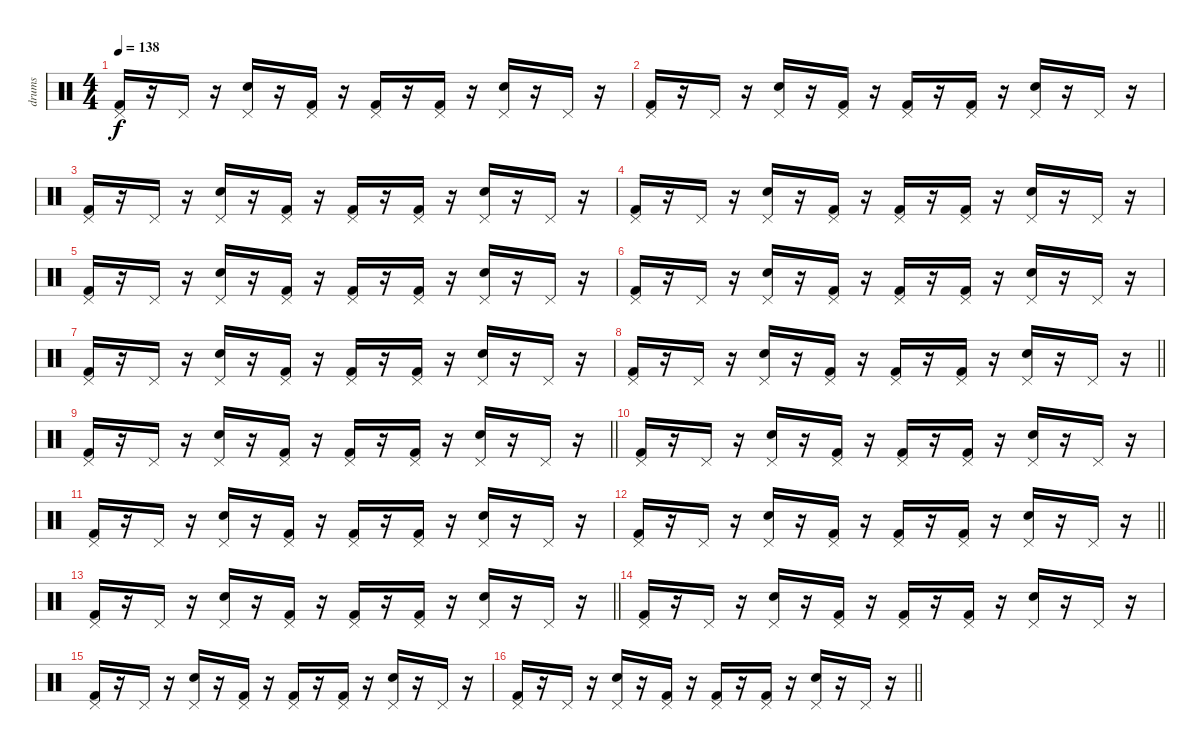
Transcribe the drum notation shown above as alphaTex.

\track ("drums" "drums") {instrument percussion}
\staff {score}
\articulation defaults
\ts (4 4)
\tempo 138
\clef neutral
\ks c
("Kick (hit) 2" "Pedal Hi-Hat (hit)").16{dy f} r.16 "Pedal Hi-Hat (hit)".16 r.16 ("Electric Snare (hit)" "Pedal Hi-Hat (hit)").16 r.16 ("Kick (hit) 2" "Pedal Hi-Hat (hit)").16 r.16 ("Kick (hit) 2" "Pedal Hi-Hat (hit)").16 r.16 ("Kick (hit) 2" "Pedal Hi-Hat (hit)").16 r.16 ("Electric Snare (hit)" "Pedal Hi-Hat (hit)").16 r.16 "Pedal Hi-Hat (hit)".16 r.16 |
("Kick (hit) 2" "Pedal Hi-Hat (hit)").16 r.16 "Pedal Hi-Hat (hit)".16 r.16 ("Electric Snare (hit)" "Pedal Hi-Hat (hit)").16 r.16 ("Kick (hit) 2" "Pedal Hi-Hat (hit)").16 r.16 ("Kick (hit) 2" "Pedal Hi-Hat (hit)").16 r.16 ("Kick (hit) 2" "Pedal Hi-Hat (hit)").16 r.16 ("Electric Snare (hit)" "Pedal Hi-Hat (hit)").16 r.16 "Pedal Hi-Hat (hit)".16 r.16 |
("Kick (hit) 2" "Pedal Hi-Hat (hit)").16 r.16 "Pedal Hi-Hat (hit)".16 r.16 ("Electric Snare (hit)" "Pedal Hi-Hat (hit)").16 r.16 ("Kick (hit) 2" "Pedal Hi-Hat (hit)").16 r.16 ("Kick (hit) 2" "Pedal Hi-Hat (hit)").16 r.16 ("Kick (hit) 2" "Pedal Hi-Hat (hit)").16 r.16 ("Electric Snare (hit)" "Pedal Hi-Hat (hit)").16 r.16 "Pedal Hi-Hat (hit)".16 r.16 |
("Kick (hit) 2" "Pedal Hi-Hat (hit)").16 r.16 "Pedal Hi-Hat (hit)".16 r.16 ("Electric Snare (hit)" "Pedal Hi-Hat (hit)").16 r.16 ("Kick (hit) 2" "Pedal Hi-Hat (hit)").16 r.16 ("Kick (hit) 2" "Pedal Hi-Hat (hit)").16 r.16 ("Kick (hit) 2" "Pedal Hi-Hat (hit)").16 r.16 ("Electric Snare (hit)" "Pedal Hi-Hat (hit)").16 r.16 "Pedal Hi-Hat (hit)".16 r.16 |
("Kick (hit) 2" "Pedal Hi-Hat (hit)").16 r.16 "Pedal Hi-Hat (hit)".16 r.16 ("Electric Snare (hit)" "Pedal Hi-Hat (hit)").16 r.16 ("Kick (hit) 2" "Pedal Hi-Hat (hit)").16 r.16 ("Kick (hit) 2" "Pedal Hi-Hat (hit)").16 r.16 ("Kick (hit) 2" "Pedal Hi-Hat (hit)").16 r.16 ("Electric Snare (hit)" "Pedal Hi-Hat (hit)").16 r.16 "Pedal Hi-Hat (hit)".16 r.16 |
("Kick (hit) 2" "Pedal Hi-Hat (hit)").16 r.16 "Pedal Hi-Hat (hit)".16 r.16 ("Electric Snare (hit)" "Pedal Hi-Hat (hit)").16 r.16 ("Kick (hit) 2" "Pedal Hi-Hat (hit)").16 r.16 ("Kick (hit) 2" "Pedal Hi-Hat (hit)").16 r.16 ("Kick (hit) 2" "Pedal Hi-Hat (hit)").16 r.16 ("Electric Snare (hit)" "Pedal Hi-Hat (hit)").16 r.16 "Pedal Hi-Hat (hit)".16 r.16 |
("Kick (hit) 2" "Pedal Hi-Hat (hit)").16 r.16 "Pedal Hi-Hat (hit)".16 r.16 ("Electric Snare (hit)" "Pedal Hi-Hat (hit)").16 r.16 ("Kick (hit) 2" "Pedal Hi-Hat (hit)").16 r.16 ("Kick (hit) 2" "Pedal Hi-Hat (hit)").16 r.16 ("Kick (hit) 2" "Pedal Hi-Hat (hit)").16 r.16 ("Electric Snare (hit)" "Pedal Hi-Hat (hit)").16 r.16 "Pedal Hi-Hat (hit)".16 r.16 |
\barLineRight lightlight
("Kick (hit) 2" "Pedal Hi-Hat (hit)").16 r.16 "Pedal Hi-Hat (hit)".16 r.16 ("Electric Snare (hit)" "Pedal Hi-Hat (hit)").16 r.16 ("Kick (hit) 2" "Pedal Hi-Hat (hit)").16 r.16 ("Kick (hit) 2" "Pedal Hi-Hat (hit)").16 r.16 ("Kick (hit) 2" "Pedal Hi-Hat (hit)").16 r.16 ("Electric Snare (hit)" "Pedal Hi-Hat (hit)").16 r.16 "Pedal Hi-Hat (hit)".16 r.16 |
\barLineRight lightlight
("Kick (hit) 2" "Pedal Hi-Hat (hit)").16 r.16 "Pedal Hi-Hat (hit)".16 r.16 ("Electric Snare (hit)" "Pedal Hi-Hat (hit)").16 r.16 ("Kick (hit) 2" "Pedal Hi-Hat (hit)").16 r.16 ("Kick (hit) 2" "Pedal Hi-Hat (hit)").16 r.16 ("Kick (hit) 2" "Pedal Hi-Hat (hit)").16 r.16 ("Electric Snare (hit)" "Pedal Hi-Hat (hit)").16 r.16 "Pedal Hi-Hat (hit)".16 r.16 |
("Kick (hit) 2" "Pedal Hi-Hat (hit)").16 r.16 "Pedal Hi-Hat (hit)".16 r.16 ("Electric Snare (hit)" "Pedal Hi-Hat (hit)").16 r.16 ("Kick (hit) 2" "Pedal Hi-Hat (hit)").16 r.16 ("Kick (hit) 2" "Pedal Hi-Hat (hit)").16 r.16 ("Kick (hit) 2" "Pedal Hi-Hat (hit)").16 r.16 ("Electric Snare (hit)" "Pedal Hi-Hat (hit)").16 r.16 "Pedal Hi-Hat (hit)".16 r.16 |
("Kick (hit) 2" "Pedal Hi-Hat (hit)").16 r.16 "Pedal Hi-Hat (hit)".16 r.16 ("Electric Snare (hit)" "Pedal Hi-Hat (hit)").16 r.16 ("Kick (hit) 2" "Pedal Hi-Hat (hit)").16 r.16 ("Kick (hit) 2" "Pedal Hi-Hat (hit)").16 r.16 ("Kick (hit) 2" "Pedal Hi-Hat (hit)").16 r.16 ("Electric Snare (hit)" "Pedal Hi-Hat (hit)").16 r.16 "Pedal Hi-Hat (hit)".16 r.16 |
\barLineRight lightlight
("Kick (hit) 2" "Pedal Hi-Hat (hit)").16 r.16 "Pedal Hi-Hat (hit)".16 r.16 ("Electric Snare (hit)" "Pedal Hi-Hat (hit)").16 r.16 ("Kick (hit) 2" "Pedal Hi-Hat (hit)").16 r.16 ("Kick (hit) 2" "Pedal Hi-Hat (hit)").16 r.16 ("Kick (hit) 2" "Pedal Hi-Hat (hit)").16 r.16 ("Electric Snare (hit)" "Pedal Hi-Hat (hit)").16 r.16 "Pedal Hi-Hat (hit)".16 r.16 |
\barLineRight lightlight
("Kick (hit) 2" "Pedal Hi-Hat (hit)").16 r.16 "Pedal Hi-Hat (hit)".16 r.16 ("Electric Snare (hit)" "Pedal Hi-Hat (hit)").16 r.16 ("Kick (hit) 2" "Pedal Hi-Hat (hit)").16 r.16 ("Kick (hit) 2" "Pedal Hi-Hat (hit)").16 r.16 ("Kick (hit) 2" "Pedal Hi-Hat (hit)").16 r.16 ("Electric Snare (hit)" "Pedal Hi-Hat (hit)").16 r.16 "Pedal Hi-Hat (hit)".16 r.16 |
("Kick (hit) 2" "Pedal Hi-Hat (hit)").16 r.16 "Pedal Hi-Hat (hit)".16 r.16 ("Electric Snare (hit)" "Pedal Hi-Hat (hit)").16 r.16 ("Kick (hit) 2" "Pedal Hi-Hat (hit)").16 r.16 ("Kick (hit) 2" "Pedal Hi-Hat (hit)").16 r.16 ("Kick (hit) 2" "Pedal Hi-Hat (hit)").16 r.16 ("Electric Snare (hit)" "Pedal Hi-Hat (hit)").16 r.16 "Pedal Hi-Hat (hit)".16 r.16 |
("Kick (hit) 2" "Pedal Hi-Hat (hit)").16 r.16 "Pedal Hi-Hat (hit)".16 r.16 ("Electric Snare (hit)" "Pedal Hi-Hat (hit)").16 r.16 ("Kick (hit) 2" "Pedal Hi-Hat (hit)").16 r.16 ("Kick (hit) 2" "Pedal Hi-Hat (hit)").16 r.16 ("Kick (hit) 2" "Pedal Hi-Hat (hit)").16 r.16 ("Electric Snare (hit)" "Pedal Hi-Hat (hit)").16 r.16 "Pedal Hi-Hat (hit)".16 r.16 |
\barLineRight lightlight
("Kick (hit) 2" "Pedal Hi-Hat (hit)").16 r.16 "Pedal Hi-Hat (hit)".16 r.16 ("Electric Snare (hit)" "Pedal Hi-Hat (hit)").16 r.16 ("Kick (hit) 2" "Pedal Hi-Hat (hit)").16 r.16 ("Kick (hit) 2" "Pedal Hi-Hat (hit)").16 r.16 ("Kick (hit) 2" "Pedal Hi-Hat (hit)").16 r.16 ("Electric Snare (hit)" "Pedal Hi-Hat (hit)").16 r.16 "Pedal Hi-Hat (hit)".16 r.16
